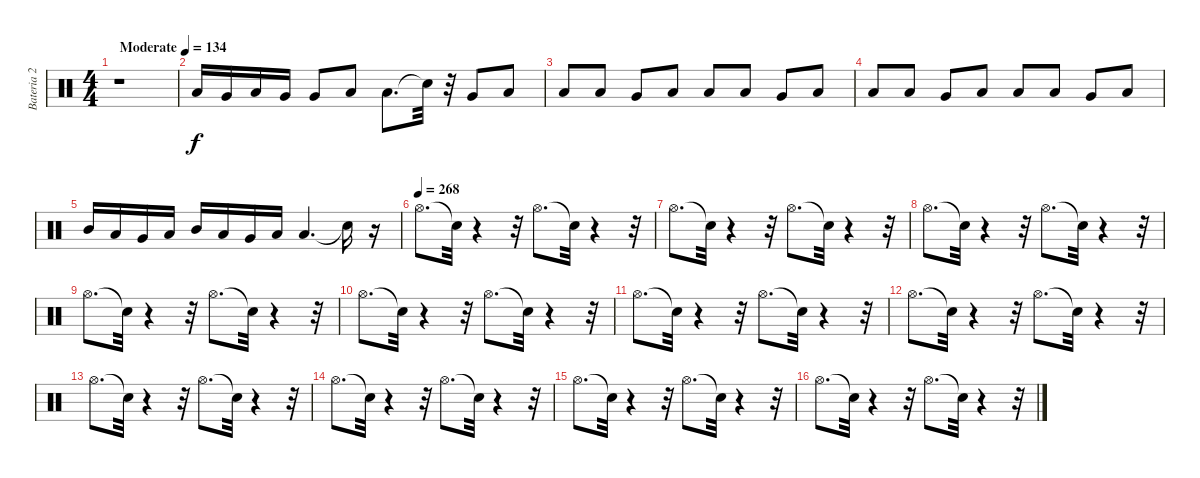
\track ("Bateria 2" "Bateria 2") {instrument percussion}
\staff {score}
\articulation defaults
\ts (4 4)
\tempo (134 "Moderate")
\clef neutral
\ks c
r.1{dy f} |
"Low Tom (hit)".16 "Very Low Tom (hit)".16 "Low Floor Tom (hit)".16 "Very Low Tom (hit)".16 "Very Low Tom (hit)".8 "Low Floor Tom (hit)".8 "Low Floor Tom (hit)".8{d} "Snare (hit)"{t}.32 r.32 "Very Low Tom (hit)".8 "Low Floor Tom (hit)".8 |
"Low Floor Tom (hit)".8 "Low Tom (hit)".8 "Very Low Tom (hit)".8 "Low Floor Tom (hit)".8 "Low Floor Tom (hit)".8 "Low Tom (hit)".8 "Very Low Tom (hit)".8 "Low Floor Tom (hit)".8 |
"Low Floor Tom (hit)".8 "Low Tom (hit)".8 "Very Low Tom (hit)".8 "Low Floor Tom (hit)".8 "Low Floor Tom (hit)".8 "Low Tom (hit)".8 "Very Low Tom (hit)".8 "Low Floor Tom (hit)".8 |
"Mid Tom (hit)".16 "Low Tom (hit)".16 "Very Low Tom (hit)".16 "Low Floor Tom (hit)".16 "Mid Tom (hit)".16 "Low Tom (hit)".16 "Very Low Tom (hit)".16 "Low Floor Tom (hit)".16 "Low Floor Tom (hit)".4{d} "Snare (hit)"{t}.16 r.16 |
\tempo (268)
"Hi-Hat (open)".8{d} "Snare (hit)"{t}.32 r.4 r.32 "Hi-Hat (open)".8{d} "Snare (hit)"{t}.32 r.4 r.32 |
"Hi-Hat (open)".8{d} "Snare (hit)"{t}.32 r.4 r.32 "Hi-Hat (open)".8{d} "Snare (hit)"{t}.32 r.4 r.32 |
"Hi-Hat (open)".8{d} "Snare (hit)"{t}.32 r.4 r.32 "Hi-Hat (open)".8{d} "Snare (hit)"{t}.32 r.4 r.32 |
"Hi-Hat (open)".8{d} "Snare (hit)"{t}.32 r.4 r.32 "Hi-Hat (open)".8{d} "Snare (hit)"{t}.32 r.4 r.32 |
"Hi-Hat (open)".8{d} "Snare (hit)"{t}.32 r.4 r.32 "Hi-Hat (open)".8{d} "Snare (hit)"{t}.32 r.4 r.32 |
"Hi-Hat (open)".8{d} "Snare (hit)"{t}.32 r.4 r.32 "Hi-Hat (open)".8{d} "Snare (hit)"{t}.32 r.4 r.32 |
"Hi-Hat (open)".8{d} "Snare (hit)"{t}.32 r.4 r.32 "Hi-Hat (open)".8{d} "Snare (hit)"{t}.32 r.4 r.32 |
"Hi-Hat (open)".8{d} "Snare (hit)"{t}.32 r.4 r.32 "Hi-Hat (open)".8{d} "Snare (hit)"{t}.32 r.4 r.32 |
"Hi-Hat (open)".8{d} "Snare (hit)"{t}.32 r.4 r.32 "Hi-Hat (open)".8{d} "Snare (hit)"{t}.32 r.4 r.32 |
"Hi-Hat (open)".8{d} "Snare (hit)"{t}.32 r.4 r.32 "Hi-Hat (open)".8{d} "Snare (hit)"{t}.32 r.4 r.32 |
"Hi-Hat (open)".8{d} "Snare (hit)"{t}.32 r.4 r.32 "Hi-Hat (open)".8{d} "Snare (hit)"{t}.32 r.4 r.32
